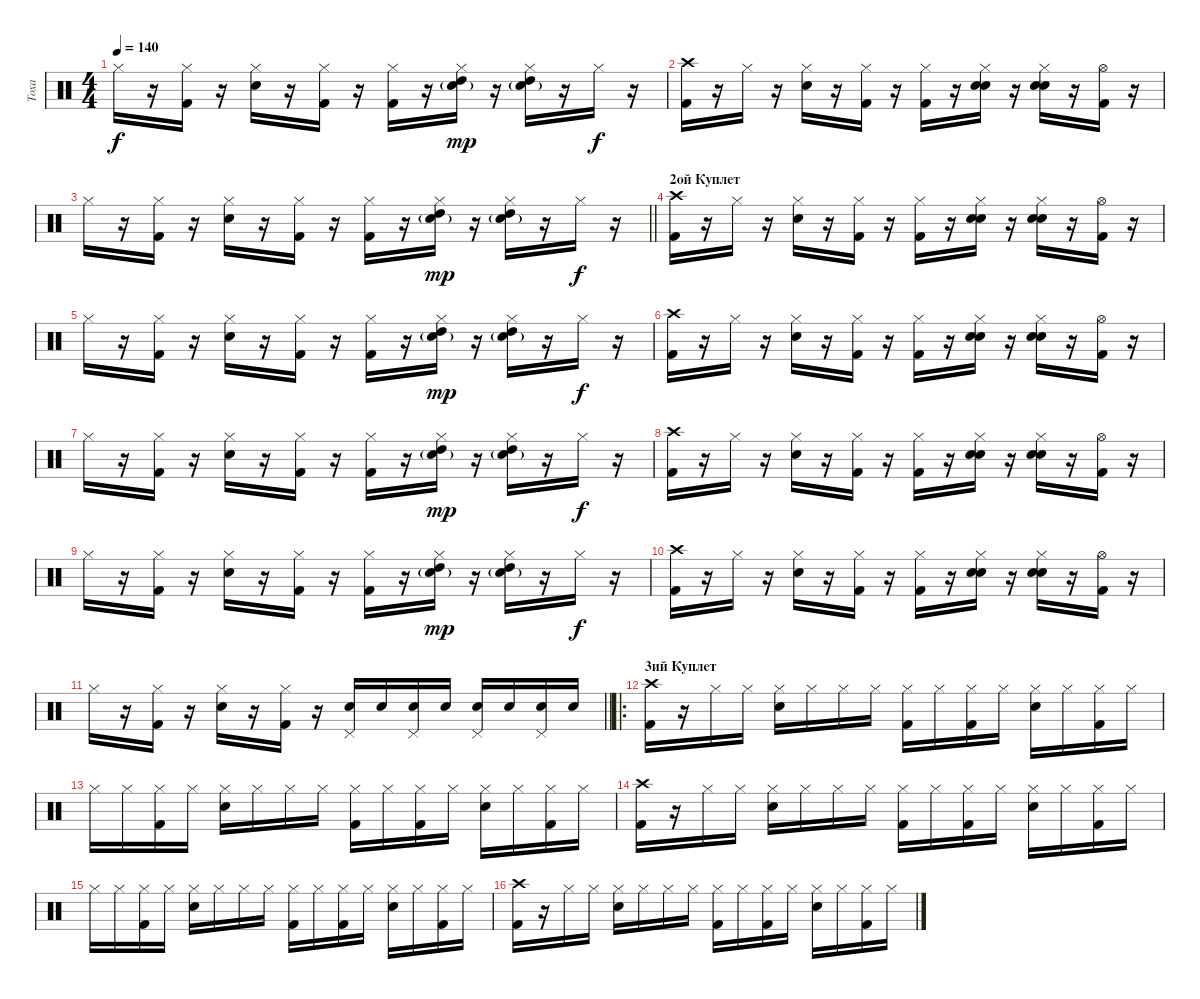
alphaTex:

\track ("Тоха" "Тоха") {instrument percussion}
\staff {score}
\articulation defaults
\ts (4 4)
\tempo 140
\clef neutral
\ks c "Hi-Hat (closed)".16{dy f}
r.16 ("Kick (hit) 2" "Hi-Hat (closed)").16 r.16 ("Snare (hit) 2" "Hi-Hat (closed)").16 r.16 ("Kick (hit) 2" "Hi-Hat (closed)").16 r.16 ("Kick (hit) 2" "Hi-Hat (closed)").16 r.16 ("High Tom (hit)" "Hi-Hat (closed)" "Snare (hit) 2"{g}).16{dy mp} r.16 ("High Tom (hit)" "Hi-Hat (closed)" "Snare (hit) 2"{g}).16 r.16 "Hi-Hat (closed)".16{dy f} r.16 |
("Kick (hit) 2" "Crash high (hit)").16 r.16 "Hi-Hat (closed)".16 r.16 ("Snare (hit) 2" "Hi-Hat (closed)").16 r.16 ("Kick (hit) 2" "Hi-Hat (closed)").16 r.16 ("Kick (hit) 2" "Hi-Hat (closed)").16 r.16 ("Snare (hit) 2" "Hi-Hat (closed)" "Hand Clap (hit)").16 r.16 ("Snare (hit) 2" "Hi-Hat (closed)" "Hand Clap (hit)").16 r.16 ("Kick (hit) 2" "Hi-Hat (open)").16 r.16 |
\barLineRight lightlight "Hi-Hat (closed)".16
r.16 ("Kick (hit) 2" "Hi-Hat (closed)").16 r.16 ("Snare (hit) 2" "Hi-Hat (closed)").16 r.16 ("Kick (hit) 2" "Hi-Hat (closed)").16 r.16 ("Kick (hit) 2" "Hi-Hat (closed)").16 r.16 ("High Tom (hit)" "Hi-Hat (closed)" "Snare (hit) 2"{g}).16{dy mp} r.16 ("High Tom (hit)" "Hi-Hat (closed)" "Snare (hit) 2"{g}).16 r.16 "Hi-Hat (closed)".16{dy f} r.16 |
\section ("" "2ой Куплет")
("Kick (hit) 2" "Crash high (hit)").16 r.16 "Hi-Hat (closed)".16 r.16 ("Snare (hit) 2" "Hi-Hat (closed)").16 r.16 ("Kick (hit) 2" "Hi-Hat (closed)").16 r.16 ("Kick (hit) 2" "Hi-Hat (closed)").16 r.16 ("Snare (hit) 2" "Hi-Hat (closed)" "Hand Clap (hit)").16 r.16 ("Snare (hit) 2" "Hi-Hat (closed)" "Hand Clap (hit)").16 r.16 ("Kick (hit) 2" "Hi-Hat (open)").16 r.16 |
"Hi-Hat (closed)".16 r.16 ("Kick (hit) 2" "Hi-Hat (closed)").16 r.16 ("Snare (hit) 2" "Hi-Hat (closed)").16 r.16 ("Kick (hit) 2" "Hi-Hat (closed)").16 r.16 ("Kick (hit) 2" "Hi-Hat (closed)").16 r.16 ("High Tom (hit)" "Hi-Hat (closed)" "Snare (hit) 2"{g}).16{dy mp} r.16 ("High Tom (hit)" "Hi-Hat (closed)" "Snare (hit) 2"{g}).16 r.16 "Hi-Hat (closed)".16{dy f} r.16 |
("Kick (hit) 2" "Crash high (hit)").16 r.16 "Hi-Hat (closed)".16 r.16 ("Snare (hit) 2" "Hi-Hat (closed)").16 r.16 ("Kick (hit) 2" "Hi-Hat (closed)").16 r.16 ("Kick (hit) 2" "Hi-Hat (closed)").16 r.16 ("Snare (hit) 2" "Hi-Hat (closed)" "Hand Clap (hit)").16 r.16 ("Snare (hit) 2" "Hi-Hat (closed)" "Hand Clap (hit)").16 r.16 ("Kick (hit) 2" "Hi-Hat (open)").16 r.16 |
"Hi-Hat (closed)".16 r.16 ("Kick (hit) 2" "Hi-Hat (closed)").16 r.16 ("Snare (hit) 2" "Hi-Hat (closed)").16 r.16 ("Kick (hit) 2" "Hi-Hat (closed)").16 r.16 ("Kick (hit) 2" "Hi-Hat (closed)").16 r.16 ("High Tom (hit)" "Hi-Hat (closed)" "Snare (hit) 2"{g}).16{dy mp} r.16 ("High Tom (hit)" "Hi-Hat (closed)" "Snare (hit) 2"{g}).16 r.16 "Hi-Hat (closed)".16{dy f} r.16 |
("Kick (hit) 2" "Crash high (hit)").16 r.16 "Hi-Hat (closed)".16 r.16 ("Snare (hit) 2" "Hi-Hat (closed)").16 r.16 ("Kick (hit) 2" "Hi-Hat (closed)").16 r.16 ("Kick (hit) 2" "Hi-Hat (closed)").16 r.16 ("Snare (hit) 2" "Hi-Hat (closed)" "Hand Clap (hit)").16 r.16 ("Snare (hit) 2" "Hi-Hat (closed)" "Hand Clap (hit)").16 r.16 ("Kick (hit) 2" "Hi-Hat (open)").16 r.16 |
"Hi-Hat (closed)".16 r.16 ("Kick (hit) 2" "Hi-Hat (closed)").16 r.16 ("Snare (hit) 2" "Hi-Hat (closed)").16 r.16 ("Kick (hit) 2" "Hi-Hat (closed)").16 r.16 ("Kick (hit) 2" "Hi-Hat (closed)").16 r.16 ("High Tom (hit)" "Hi-Hat (closed)" "Snare (hit) 2"{g}).16{dy mp} r.16 ("High Tom (hit)" "Hi-Hat (closed)" "Snare (hit) 2"{g}).16 r.16 "Hi-Hat (closed)".16{dy f} r.16 |
("Kick (hit) 2" "Crash high (hit)").16 r.16 "Hi-Hat (closed)".16 r.16 ("Snare (hit) 2" "Hi-Hat (closed)").16 r.16 ("Kick (hit) 2" "Hi-Hat (closed)").16 r.16 ("Kick (hit) 2" "Hi-Hat (closed)").16 r.16 ("Snare (hit) 2" "Hi-Hat (closed)" "Hand Clap (hit)").16 r.16 ("Snare (hit) 2" "Hi-Hat (closed)" "Hand Clap (hit)").16 r.16 ("Kick (hit) 2" "Hi-Hat (open)").16 r.16 |
\barLineRight lightlight "Hi-Hat (closed)".16
r.16 ("Kick (hit) 2" "Hi-Hat (closed)").16 r.16 ("Snare (hit) 2" "Hi-Hat (closed)").16 r.16 ("Kick (hit) 2" "Hi-Hat (closed)").16 r.16 ("Snare (hit) 2" "Pedal Hi-Hat (hit)").16 "Snare (hit) 2".16 ("Snare (hit) 2" "Pedal Hi-Hat (hit)").16 "Snare (hit) 2".16 ("Snare (hit) 2" "Pedal Hi-Hat (hit)").16 "Snare (hit) 2".16 ("Snare (hit) 2" "Pedal Hi-Hat (hit)").16 "Snare (hit) 2".16 |
\ro
\section ("" "3ий Куплет")
("Kick (hit) 2" "Crash high (hit)").16 r.16 "Hi-Hat (closed)".16 "Hi-Hat (closed)".16 ("Snare (hit) 2" "Hi-Hat (closed)").16 "Hi-Hat (closed)".16 "Hi-Hat (closed)".16 "Hi-Hat (closed)".16 ("Kick (hit) 2" "Hi-Hat (closed)").16 "Hi-Hat (closed)".16 ("Kick (hit) 2" "Hi-Hat (closed)").16 "Hi-Hat (closed)".16 ("Snare (hit) 2" "Hi-Hat (closed)").16 "Hi-Hat (closed)".16 ("Kick (hit) 2" "Hi-Hat (closed)").16 "Hi-Hat (closed)".16 |
"Hi-Hat (closed)".16 "Hi-Hat (closed)".16 ("Kick (hit) 2" "Hi-Hat (closed)").16 "Hi-Hat (closed)".16 ("Snare (hit) 2" "Hi-Hat (closed)").16 "Hi-Hat (closed)".16 "Hi-Hat (closed)".16 "Hi-Hat (closed)".16 ("Kick (hit) 2" "Hi-Hat (closed)").16 "Hi-Hat (closed)".16 ("Kick (hit) 2" "Hi-Hat (closed)").16 "Hi-Hat (closed)".16 ("Snare (hit) 2" "Hi-Hat (closed)").16 "Hi-Hat (closed)".16 ("Kick (hit) 2" "Hi-Hat (closed)").16 "Hi-Hat (closed)".16 |
("Kick (hit) 2" "Crash high (hit)").16 r.16 "Hi-Hat (closed)".16 "Hi-Hat (closed)".16 ("Snare (hit) 2" "Hi-Hat (closed)").16 "Hi-Hat (closed)".16 "Hi-Hat (closed)".16 "Hi-Hat (closed)".16 ("Kick (hit) 2" "Hi-Hat (closed)").16 "Hi-Hat (closed)".16 ("Kick (hit) 2" "Hi-Hat (closed)").16 "Hi-Hat (closed)".16 ("Snare (hit) 2" "Hi-Hat (closed)").16 "Hi-Hat (closed)".16 ("Kick (hit) 2" "Hi-Hat (closed)").16 "Hi-Hat (closed)".16 |
"Hi-Hat (closed)".16 "Hi-Hat (closed)".16 ("Kick (hit) 2" "Hi-Hat (closed)").16 "Hi-Hat (closed)".16 ("Snare (hit) 2" "Hi-Hat (closed)").16 "Hi-Hat (closed)".16 "Hi-Hat (closed)".16 "Hi-Hat (closed)".16 ("Kick (hit) 2" "Hi-Hat (closed)").16 "Hi-Hat (closed)".16 ("Kick (hit) 2" "Hi-Hat (closed)").16 "Hi-Hat (closed)".16 ("Snare (hit) 2" "Hi-Hat (closed)").16 "Hi-Hat (closed)".16 ("Kick (hit) 2" "Hi-Hat (closed)").16 "Hi-Hat (closed)".16 |
("Kick (hit) 2" "Crash high (hit)").16 r.16 "Hi-Hat (closed)".16 "Hi-Hat (closed)".16 ("Snare (hit) 2" "Hi-Hat (closed)").16 "Hi-Hat (closed)".16 "Hi-Hat (closed)".16 "Hi-Hat (closed)".16 ("Kick (hit) 2" "Hi-Hat (closed)").16 "Hi-Hat (closed)".16 ("Kick (hit) 2" "Hi-Hat (closed)").16 "Hi-Hat (closed)".16 ("Snare (hit) 2" "Hi-Hat (closed)").16 "Hi-Hat (closed)".16 ("Kick (hit) 2" "Hi-Hat (closed)").16 "Hi-Hat (closed)".16
